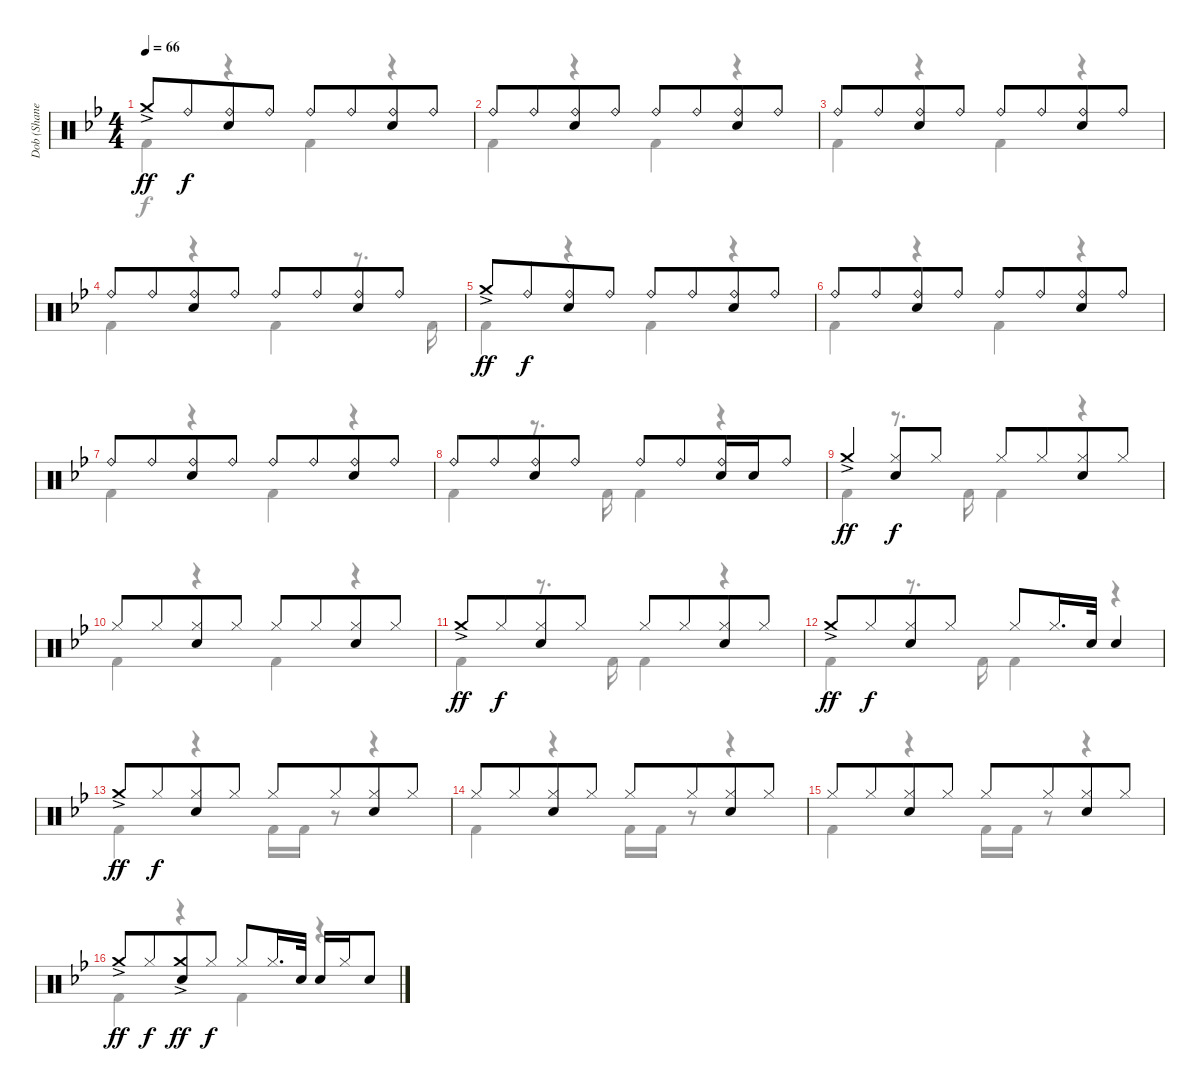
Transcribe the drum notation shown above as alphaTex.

\track ("Dob (Shane Gaalaas)" "Dob (Shane") {instrument percussion}
\staff {score}
\articulation defaults
\voice
\ts (4 4)
\tempo 66
\clef neutral
\ks bb "Crash medium (hit)"{ac}.8{dy ff} "Ride (bell)".8{dy f beam merge}
("Ride (bell)" "Electric Snare (hit)").8 "Ride (bell)".8 "Ride (bell)".8 "Ride (bell)".8{beam merge} ("Ride (bell)" "Electric Snare (hit)").8 "Ride (bell)".8 |
"Ride (bell)".8 "Ride (bell)".8{beam merge} ("Ride (bell)" "Electric Snare (hit)").8 "Ride (bell)".8 "Ride (bell)".8 "Ride (bell)".8{beam merge} ("Ride (bell)" "Electric Snare (hit)").8 "Ride (bell)".8 |
"Ride (bell)".8 "Ride (bell)".8{beam merge} ("Ride (bell)" "Electric Snare (hit)").8 "Ride (bell)".8 "Ride (bell)".8 "Ride (bell)".8{beam merge} ("Ride (bell)" "Electric Snare (hit)").8 "Ride (bell)".8 |
"Ride (bell)".8 "Ride (bell)".8{beam merge} ("Ride (bell)" "Electric Snare (hit)").8 "Ride (bell)".8 "Ride (bell)".8 "Ride (bell)".8{beam merge} ("Ride (bell)" "Electric Snare (hit)").8 "Ride (bell)".8 |
"Crash medium (hit)"{ac}.8{dy ff} "Ride (bell)".8{dy f beam merge} ("Ride (bell)" "Electric Snare (hit)").8 "Ride (bell)".8 "Ride (bell)".8 "Ride (bell)".8{beam merge} ("Ride (bell)" "Electric Snare (hit)").8 "Ride (bell)".8 |
"Ride (bell)".8 "Ride (bell)".8{beam merge} ("Ride (bell)" "Electric Snare (hit)").8 "Ride (bell)".8 "Ride (bell)".8 "Ride (bell)".8{beam merge} ("Ride (bell)" "Electric Snare (hit)").8 "Ride (bell)".8 |
"Ride (bell)".8 "Ride (bell)".8{beam merge} ("Ride (bell)" "Electric Snare (hit)").8 "Ride (bell)".8 "Ride (bell)".8 "Ride (bell)".8{beam merge} ("Ride (bell)" "Electric Snare (hit)").8 "Ride (bell)".8 |
"Ride (bell)".8 "Ride (bell)".8{beam merge} ("Ride (bell)" "Electric Snare (hit)").8 "Ride (bell)".8 "Ride (bell)".8 "Ride (bell)".8{beam merge} ("Ride (bell)" "Electric Snare (hit)").16 "Electric Snare (hit)".16 "Ride (bell)".8 |
"Crash medium (hit)"{ac}.4{dy ff beam merge} ("Hi-Hat (closed)" "Electric Snare (hit)").8{dy f} "Hi-Hat (closed)".8 "Hi-Hat (closed)".8 "Hi-Hat (closed)".8{beam merge} ("Hi-Hat (closed)" "Electric Snare (hit)").8 "Hi-Hat (closed)".8 |
"Hi-Hat (closed)".8 "Hi-Hat (closed)".8{beam merge} ("Hi-Hat (closed)" "Electric Snare (hit)").8 "Hi-Hat (closed)".8 "Hi-Hat (closed)".8 "Hi-Hat (closed)".8{beam merge} ("Hi-Hat (closed)" "Electric Snare (hit)").8 "Hi-Hat (closed)".8 |
"Crash medium (hit)"{ac}.8{dy ff} "Hi-Hat (closed)".8{dy f beam merge} ("Hi-Hat (closed)" "Electric Snare (hit)").8 "Hi-Hat (closed)".8 "Hi-Hat (closed)".8 "Hi-Hat (closed)".8{beam merge} ("Hi-Hat (closed)" "Electric Snare (hit)").8 "Hi-Hat (closed)".8 |
"Crash medium (hit)"{ac}.8{dy ff} "Hi-Hat (closed)".8{dy f beam merge} ("Hi-Hat (closed)" "Electric Snare (hit)").8 "Hi-Hat (closed)".8 "Hi-Hat (closed)".8 "Hi-Hat (closed)".16{d} "Electric Snare (hit)".32 "Electric Snare (hit)".4 |
"Crash medium (hit)"{ac}.8{dy ff} "Hi-Hat (closed)".8{dy f beam merge} ("Hi-Hat (closed)" "Electric Snare (hit)").8 "Hi-Hat (closed)".8 "Hi-Hat (closed)".8 "Hi-Hat (closed)".8{beam merge} ("Hi-Hat (closed)" "Electric Snare (hit)").8 "Hi-Hat (closed)".8 |
"Hi-Hat (closed)".8 "Hi-Hat (closed)".8{beam merge} ("Hi-Hat (closed)" "Electric Snare (hit)").8 "Hi-Hat (closed)".8 "Hi-Hat (closed)".8 "Hi-Hat (closed)".8{beam merge} ("Hi-Hat (closed)" "Electric Snare (hit)").8 "Hi-Hat (closed)".8 |
"Hi-Hat (closed)".8 "Hi-Hat (closed)".8{beam merge} ("Hi-Hat (closed)" "Electric Snare (hit)").8 "Hi-Hat (closed)".8 "Hi-Hat (closed)".8 "Hi-Hat (closed)".8{beam merge} ("Hi-Hat (closed)" "Electric Snare (hit)").8 "Hi-Hat (closed)".8 |
"Crash medium (hit)"{ac}.8{dy ff} "Hi-Hat (closed)".8{dy f beam merge} ("Crash medium (hit)"{ac} "Electric Snare (hit)").8{dy ff} "Hi-Hat (closed)".8{dy f} "Hi-Hat (closed)".8 "Hi-Hat (closed)".16{d} "Electric Snare (hit)".32 "Electric Snare (hit)".16 "Hi-Hat (closed)".16 "Electric Snare (hit)".8
\voice
\clef neutral
\ottava regular
\simile none
\ks bb "Kick (hit) 2".4{dy f}
r.4 "Kick (hit) 2".4 r.4 |
"Kick (hit) 2".4 r.4 "Kick (hit) 2".4 r.4 |
"Kick (hit) 2".4 r.4 "Kick (hit) 2".4 r.4 |
"Kick (hit) 2".4 r.4 "Kick (hit) 2".4 r.8{d} "Kick (hit) 2".16 |
"Kick (hit) 2".4 r.4 "Kick (hit) 2".4 r.4 |
"Kick (hit) 2".4 r.4 "Kick (hit) 2".4 r.4 |
"Kick (hit) 2".4 r.4 "Kick (hit) 2".4 r.4 |
"Kick (hit) 2".4 r.8{d} "Kick (hit) 2".16 "Kick (hit) 2".4 r.4 |
"Kick (hit) 2".4 r.8{d} "Kick (hit) 2".16 "Kick (hit) 2".4 r.4 |
"Kick (hit) 2".4 r.4 "Kick (hit) 2".4 r.4 |
"Kick (hit) 2".4 r.8{d} "Kick (hit) 2".16 "Kick (hit) 2".4 r.4 |
"Kick (hit) 2".4 r.8{d} "Kick (hit) 2".16 "Kick (hit) 2".4 r.4 |
"Kick (hit) 2".4 r.4 "Kick (hit) 2".16 "Kick (hit) 2".16 r.8 r.4 |
"Kick (hit) 2".4 r.4 "Kick (hit) 2".16 "Kick (hit) 2".16 r.8 r.4 |
"Kick (hit) 2".4 r.4 "Kick (hit) 2".16 "Kick (hit) 2".16 r.8 r.4 |
"Kick (hit) 2".4 r.4 "Kick (hit) 2".4 r.4
